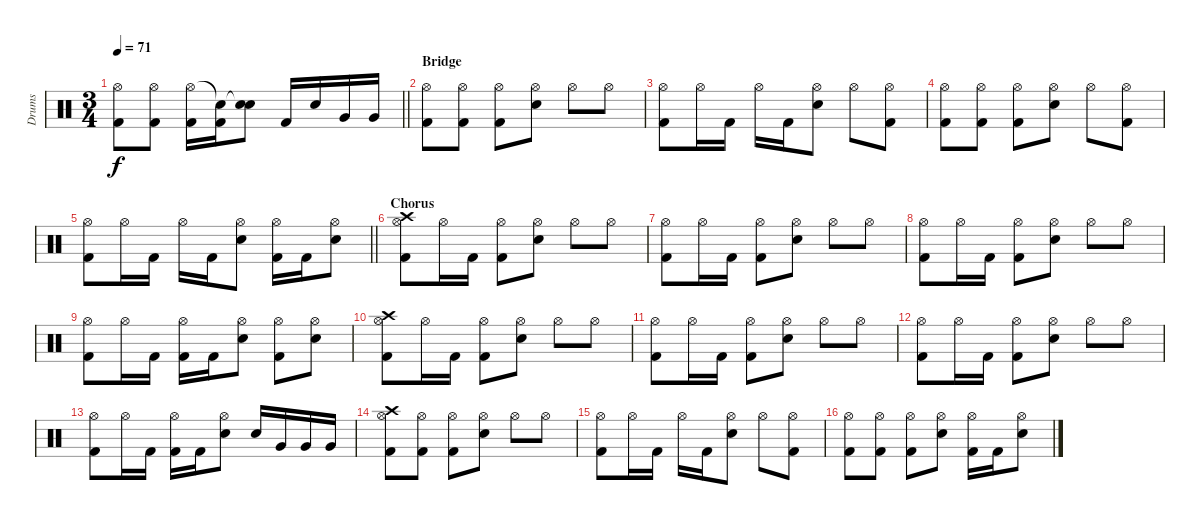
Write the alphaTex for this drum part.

\track ("Drums" "Drums") {instrument percussion}
\staff {score}
\articulation defaults
\ts (3 4)
\tempo 71
\clef neutral
\barLineRight lightlight
\ks c
("Hi-Hat (open)" "Kick (hit) 2").8{dy f} ("Hi-Hat (open)" "Kick (hit) 2").8 ("Hi-Hat (open)" "Kick (hit) 2").16 ("Snare (hit)"{t} "Kick (hit) 2").16 ("Snare (hit)"{t} "Snare (hit) 2").8 "Kick (hit) 2".16 "Snare (hit) 2".16 "Very Low Tom (hit)".16 "Very Low Tom (hit)".16 |
\section ("" "Bridge")
("Hi-Hat (open)" "Kick (hit) 2").8 ("Hi-Hat (open)" "Kick (hit) 2").8 ("Hi-Hat (open)" "Kick (hit) 2").8 ("Hi-Hat (open)" "Snare (hit) 2").8 "Hi-Hat (open)".8 "Hi-Hat (open)".8 |
("Hi-Hat (open)" "Kick (hit) 2").8 "Hi-Hat (open)".16 "Kick (hit) 2".16 "Hi-Hat (open)".16 "Kick (hit) 2".16 ("Hi-Hat (open)" "Snare (hit) 2").8 "Hi-Hat (open)".8 ("Hi-Hat (open)" "Kick (hit) 2").8 |
("Hi-Hat (open)" "Kick (hit) 2").8 ("Hi-Hat (open)" "Kick (hit) 2").8 ("Hi-Hat (open)" "Kick (hit) 2").8 ("Hi-Hat (open)" "Snare (hit) 2").8 "Hi-Hat (open)".8 ("Hi-Hat (open)" "Kick (hit) 2").8 |
\barLineRight lightlight
("Hi-Hat (open)" "Kick (hit) 2").8 "Hi-Hat (open)".16 "Kick (hit) 2".16 "Hi-Hat (open)".16 "Kick (hit) 2".16 ("Hi-Hat (open)" "Snare (hit) 2").8 ("Hi-Hat (open)" "Kick (hit) 2").16 "Kick (hit) 2".16 ("Hi-Hat (open)" "Snare (hit) 2").8 |
\section ("" "Chorus")
("Crash high (hit)" "Hi-Hat (open)" "Kick (hit) 2").8 "Hi-Hat (open)".16 "Kick (hit) 2".16 ("Hi-Hat (open)" "Kick (hit) 2").8 ("Hi-Hat (open)" "Snare (hit) 2").8 "Hi-Hat (open)".8 "Hi-Hat (open)".8 |
("Hi-Hat (open)" "Kick (hit) 2").8 "Hi-Hat (open)".16 "Kick (hit) 2".16 ("Hi-Hat (open)" "Kick (hit) 2").8 ("Hi-Hat (open)" "Snare (hit) 2").8 "Hi-Hat (open)".8 "Hi-Hat (open)".8 |
("Hi-Hat (open)" "Kick (hit) 2").8 "Hi-Hat (open)".16 "Kick (hit) 2".16 ("Hi-Hat (open)" "Kick (hit) 2").8 ("Hi-Hat (open)" "Snare (hit) 2").8 "Hi-Hat (open)".8 "Hi-Hat (open)".8 |
("Hi-Hat (open)" "Kick (hit) 2").8 "Hi-Hat (open)".16 "Kick (hit) 2".16 ("Hi-Hat (open)" "Kick (hit) 2").16 "Kick (hit) 2".16 ("Hi-Hat (open)" "Snare (hit) 2").8 ("Hi-Hat (open)" "Kick (hit) 2").8 ("Hi-Hat (open)" "Snare (hit) 2").8 |
("Crash high (hit)" "Hi-Hat (open)" "Kick (hit) 2").8 "Hi-Hat (open)".16 "Kick (hit) 2".16 ("Hi-Hat (open)" "Kick (hit) 2").8 ("Hi-Hat (open)" "Snare (hit) 2").8 "Hi-Hat (open)".8 "Hi-Hat (open)".8 |
("Hi-Hat (open)" "Kick (hit) 2").8 "Hi-Hat (open)".16 "Kick (hit) 2".16 ("Hi-Hat (open)" "Kick (hit) 2").8 ("Hi-Hat (open)" "Snare (hit) 2").8 "Hi-Hat (open)".8 "Hi-Hat (open)".8 |
("Hi-Hat (open)" "Kick (hit) 2").8 "Hi-Hat (open)".16 "Kick (hit) 2".16 ("Hi-Hat (open)" "Kick (hit) 2").8 ("Hi-Hat (open)" "Snare (hit) 2").8 "Hi-Hat (open)".8 "Hi-Hat (open)".8 |
("Hi-Hat (open)" "Kick (hit) 2").8 "Hi-Hat (open)".16 "Kick (hit) 2".16 ("Hi-Hat (open)" "Kick (hit) 2").16 "Kick (hit) 2".16 ("Hi-Hat (open)" "Snare (hit) 2").8 "Snare (hit) 2".16 "Very Low Tom (hit)".16 "Very Low Tom (hit)".16 "Very Low Tom (hit)".16 |
("Crash high (hit)" "Hi-Hat (open)" "Kick (hit) 2").8 ("Hi-Hat (open)" "Kick (hit) 2").8 ("Hi-Hat (open)" "Kick (hit) 2").8 ("Hi-Hat (open)" "Snare (hit) 2").8 "Hi-Hat (open)".8 "Hi-Hat (open)".8 |
("Hi-Hat (open)" "Kick (hit) 2").8 "Hi-Hat (open)".16 "Kick (hit) 2".16 "Hi-Hat (open)".16 "Kick (hit) 2".16 ("Hi-Hat (open)" "Snare (hit) 2").8 "Hi-Hat (open)".8 ("Hi-Hat (open)" "Kick (hit) 2").8 |
("Hi-Hat (open)" "Kick (hit) 2").8 ("Hi-Hat (open)" "Kick (hit) 2").8 ("Hi-Hat (open)" "Kick (hit) 2").8 ("Hi-Hat (open)" "Snare (hit) 2").8 ("Hi-Hat (open)" "Kick (hit) 2").16 "Kick (hit) 2".16 ("Hi-Hat (open)" "Snare (hit) 2").8
